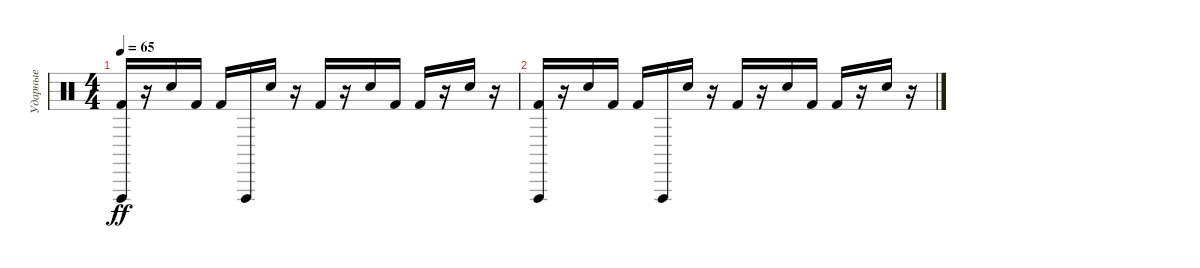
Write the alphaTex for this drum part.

\track ("Ударные" "Ударные") {instrument percussion}
\staff {score}
\articulation defaults
\ts (4 4)
\tempo 65
\clef neutral
\ks c
("Kick (hit) 2" "Vibraslap (hit)").16{dy ff volume 0} r.16 "Snare (hit) 2".16 "Kick (hit) 2".16 "Kick (hit) 2".16 "Vibraslap (hit)".16 "Snare (hit) 2".16 r.16 "Kick (hit) 2".16 r.16 "Snare (hit) 2".16 "Kick (hit) 2".16 "Kick (hit) 2".16 r.16 "Snare (hit) 2".16 r.16 |
("Kick (hit) 2" "Vibraslap (hit)").16 r.16 "Snare (hit) 2".16 "Kick (hit) 2".16 "Kick (hit) 2".16 "Vibraslap (hit)".16 "Snare (hit) 2".16 r.16 "Kick (hit) 2".16 r.16 "Snare (hit) 2".16 "Kick (hit) 2".16 "Kick (hit) 2".16 r.16 "Snare (hit) 2".16 r.16
